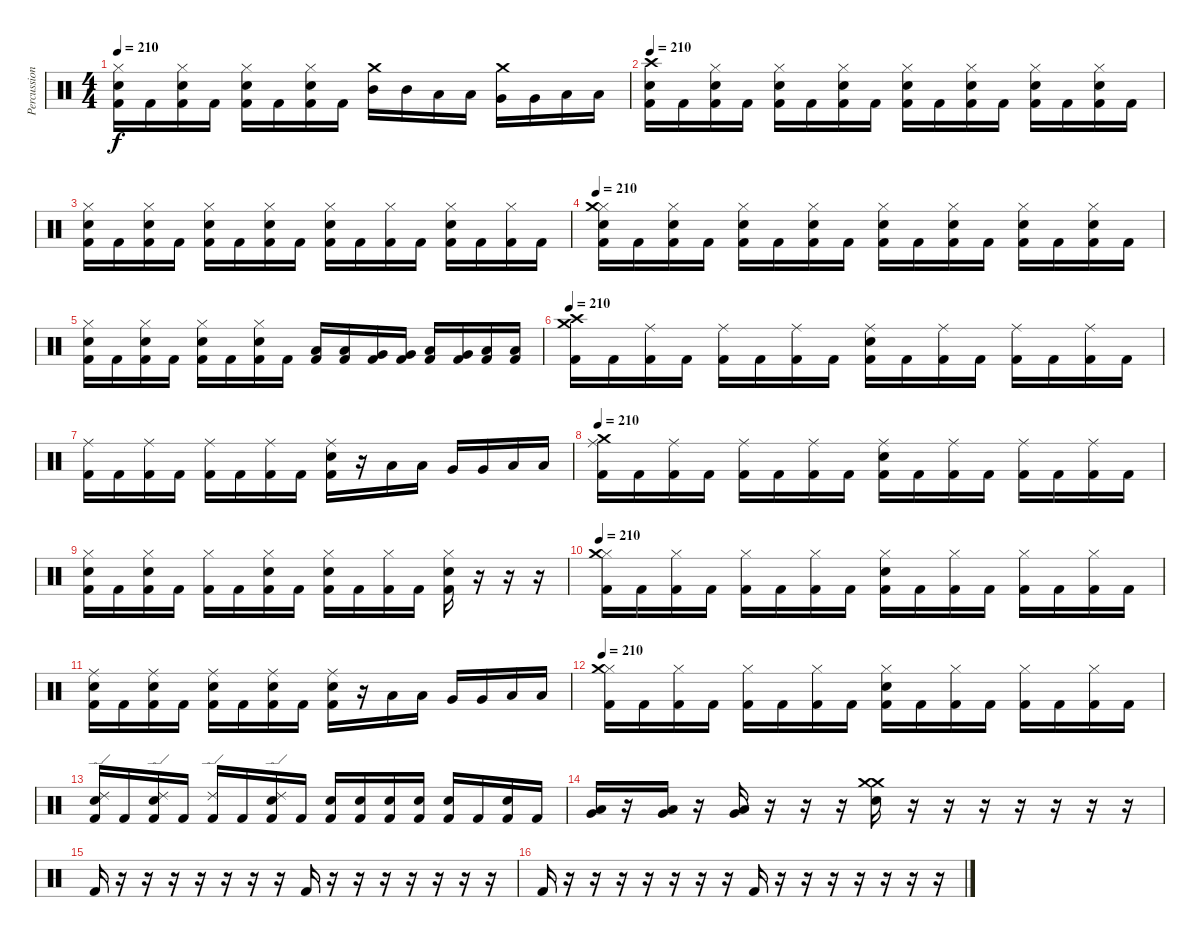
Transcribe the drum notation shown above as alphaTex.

\track ("Percussion" "Percussion") {instrument percussion}
\staff {score}
\articulation defaults
\ts (4 4)
\tempo 210
\clef neutral
\ks c
("Hi-Hat (closed)" "Snare (hit) 2" "Kick (hit) 2").16{dy f} "Kick (hit) 2".16 ("Hi-Hat (closed)" "Snare (hit) 2" "Kick (hit) 2").16 "Kick (hit) 2".16 ("Hi-Hat (closed)" "Snare (hit) 2" "Kick (hit) 2").16 "Kick (hit) 2".16 ("Hi-Hat (closed)" "Snare (hit) 2" "Kick (hit) 2").16 "Kick (hit) 2".16 ("Crash medium (hit)" "Mid Tom (hit)").16 "Mid Tom (hit)".16 "Low Tom (hit)".16 "Low Tom (hit)".16 ("Crash medium (hit)" "Very Low Tom (hit)").16 "Very Low Tom (hit)".16 "Low Floor Tom (hit)".16 "Low Floor Tom (hit)".16 |
\tempo 210
("Crash high (hit)" "Snare (hit) 2" "Kick (hit) 2").16 "Kick (hit) 2".16 ("Hi-Hat (closed)" "Snare (hit) 2" "Kick (hit) 2").16 "Kick (hit) 2".16 ("Hi-Hat (closed)" "Snare (hit) 2" "Kick (hit) 2").16 "Kick (hit) 2".16 ("Hi-Hat (closed)" "Snare (hit) 2" "Kick (hit) 2").16 "Kick (hit) 2".16 ("Hi-Hat (closed)" "Snare (hit) 2" "Kick (hit) 2").16 "Kick (hit) 2".16 ("Hi-Hat (closed)" "Snare (hit) 2" "Kick (hit) 2").16 "Kick (hit) 2".16 ("Hi-Hat (closed)" "Snare (hit) 2" "Kick (hit) 2").16 "Kick (hit) 2".16 ("Hi-Hat (closed)" "Snare (hit) 2" "Kick (hit) 2").16 "Kick (hit) 2".16 |
("Hi-Hat (closed)" "Snare (hit) 2" "Kick (hit) 2").16 "Kick (hit) 2".16 ("Hi-Hat (closed)" "Snare (hit) 2" "Kick (hit) 2").16 "Kick (hit) 2".16 ("Hi-Hat (closed)" "Snare (hit) 2" "Kick (hit) 2").16 "Kick (hit) 2".16 ("Hi-Hat (closed)" "Snare (hit) 2" "Kick (hit) 2").16 "Kick (hit) 2".16 ("Hi-Hat (closed)" "Snare (hit) 2" "Kick (hit) 2").16 "Kick (hit) 2".16 ("Hi-Hat (closed)" "Kick (hit) 2").16 "Kick (hit) 2".16 ("Hi-Hat (closed)" "Snare (hit) 2" "Kick (hit) 2").16 "Kick (hit) 2".16 ("Hi-Hat (closed)" "Kick (hit) 2").16 "Kick (hit) 2".16 |
\tempo 210
("Hi-Hat (closed)" "Crash medium (hit)" "Snare (hit) 2" "Kick (hit) 2").16 "Kick (hit) 2".16 ("Hi-Hat (closed)" "Snare (hit) 2" "Kick (hit) 2").16 "Kick (hit) 2".16 ("Hi-Hat (closed)" "Snare (hit) 2" "Kick (hit) 2").16 "Kick (hit) 2".16 ("Hi-Hat (closed)" "Snare (hit) 2" "Kick (hit) 2").16 "Kick (hit) 2".16 ("Hi-Hat (closed)" "Snare (hit) 2" "Kick (hit) 2").16 "Kick (hit) 2".16 ("Hi-Hat (closed)" "Snare (hit) 2" "Kick (hit) 2").16 "Kick (hit) 2".16 ("Hi-Hat (closed)" "Snare (hit) 2" "Kick (hit) 2").16 "Kick (hit) 2".16 ("Hi-Hat (closed)" "Snare (hit) 2" "Kick (hit) 2").16 "Kick (hit) 2".16 |
("Hi-Hat (closed)" "Snare (hit) 2" "Kick (hit) 2").16 "Kick (hit) 2".16 ("Hi-Hat (closed)" "Snare (hit) 2" "Kick (hit) 2").16 "Kick (hit) 2".16 ("Hi-Hat (closed)" "Snare (hit) 2" "Kick (hit) 2").16 "Kick (hit) 2".16 ("Hi-Hat (closed)" "Snare (hit) 2" "Kick (hit) 2").16 "Kick (hit) 2".16 ("Low Tom (hit)" "Kick (hit) 2").16 ("Low Tom (hit)" "Kick (hit) 2").16 ("Very Low Tom (hit)" "Kick (hit) 2").16 ("Very Low Tom (hit)" "Kick (hit) 2").16 ("Low Tom (hit)" "Kick (hit) 2").16 ("Very Low Tom (hit)" "Kick (hit) 2").16 ("Low Floor Tom (hit)" "Kick (hit) 2").16 ("Low Floor Tom (hit)" "Kick (hit) 2").16 |
\tempo 210
("Crash high (hit)" "Crash medium (hit)" "Kick (hit) 2").16 "Kick (hit) 2".16 ("Ride (middle)" "Kick (hit) 2").16 "Kick (hit) 2".16 ("Ride (middle)" "Kick (hit) 2").16 "Kick (hit) 2".16 ("Ride (middle)" "Kick (hit) 2").16 "Kick (hit) 2".16 ("Ride (middle)" "Snare (hit) 2" "Kick (hit) 2").16 "Kick (hit) 2".16 ("Ride (middle)" "Kick (hit) 2").16 "Kick (hit) 2".16 ("Ride (middle)" "Kick (hit) 2").16 "Kick (hit) 2".16 ("Ride (middle)" "Kick (hit) 2").16 "Kick (hit) 2".16 |
("Ride (middle)" "Kick (hit) 2").16 "Kick (hit) 2".16 ("Ride (middle)" "Kick (hit) 2").16 "Kick (hit) 2".16 ("Ride (middle)" "Kick (hit) 2").16 "Kick (hit) 2".16 ("Ride (middle)" "Kick (hit) 2").16 "Kick (hit) 2".16 ("Ride (middle)" "Snare (hit) 2" "Kick (hit) 2").16 r.16 "Low Tom (hit)".16 "Low Tom (hit)".16 "Very Low Tom (hit)".16 "Very Low Tom (hit)".16 "Low Floor Tom (hit)".16 "Low Floor Tom (hit)".16 |
\tempo 210
("Ride (middle)" "Crash medium (hit)" "Kick (hit) 2").16 "Kick (hit) 2".16 ("Ride (middle)" "Kick (hit) 2").16 "Kick (hit) 2".16 ("Ride (middle)" "Kick (hit) 2").16 "Kick (hit) 2".16 ("Ride (middle)" "Kick (hit) 2").16 "Kick (hit) 2".16 ("Ride (middle)" "Snare (hit) 2" "Kick (hit) 2").16 "Kick (hit) 2".16 ("Ride (middle)" "Kick (hit) 2").16 "Kick (hit) 2".16 ("Ride (middle)" "Kick (hit) 2").16 "Kick (hit) 2".16 ("Ride (middle)" "Kick (hit) 2").16 "Kick (hit) 2".16 |
("Hi-Hat (closed)" "Snare (hit) 2" "Kick (hit) 2").16 "Kick (hit) 2".16 ("Hi-Hat (closed)" "Snare (hit) 2" "Kick (hit) 2").16 "Kick (hit) 2".16 ("Hi-Hat (closed)" "Kick (hit) 2").16 "Kick (hit) 2".16 ("Hi-Hat (closed)" "Snare (hit) 2" "Kick (hit) 2").16 "Kick (hit) 2".16 ("Hi-Hat (closed)" "Snare (hit) 2" "Kick (hit) 2").16 "Kick (hit) 2".16 ("Hi-Hat (closed)" "Kick (hit) 2").16 "Kick (hit) 2".16 ("Hi-Hat (closed)" "Snare (hit) 2" "Kick (hit) 2").16 r.16 r.16 r.16 |
\tempo 210
("Hi-Hat (closed)" "Crash medium (hit)" "Kick (hit) 2").16 "Kick (hit) 2".16 ("Hi-Hat (closed)" "Kick (hit) 2").16 "Kick (hit) 2".16 ("Hi-Hat (closed)" "Kick (hit) 2").16 "Kick (hit) 2".16 ("Hi-Hat (closed)" "Kick (hit) 2").16 "Kick (hit) 2".16 ("Hi-Hat (closed)" "Snare (hit) 2" "Kick (hit) 2").16 "Kick (hit) 2".16 ("Hi-Hat (closed)" "Kick (hit) 2").16 "Kick (hit) 2".16 ("Hi-Hat (closed)" "Kick (hit) 2").16 "Kick (hit) 2".16 ("Hi-Hat (closed)" "Kick (hit) 2").16 "Kick (hit) 2".16 |
("Ride (middle)" "Snare (hit) 2" "Kick (hit) 2").16 "Kick (hit) 2".16 ("Ride (middle)" "Snare (hit) 2" "Kick (hit) 2").16 "Kick (hit) 2".16 ("Ride (middle)" "Snare (hit) 2" "Kick (hit) 2").16 "Kick (hit) 2".16 ("Ride (middle)" "Snare (hit) 2" "Kick (hit) 2").16 "Kick (hit) 2".16 ("Ride (middle)" "Snare (hit) 2" "Kick (hit) 2").16 r.16 "Low Tom (hit)".16 "Low Tom (hit)".16 "Very Low Tom (hit)".16 "Very Low Tom (hit)".16 "Low Floor Tom (hit)".16 "Low Floor Tom (hit)".16 |
\tempo 210
("Hi-Hat (closed)" "Crash medium (hit)" "Kick (hit) 2").16 "Kick (hit) 2".16 ("Hi-Hat (closed)" "Kick (hit) 2").16 "Kick (hit) 2".16 ("Hi-Hat (closed)" "Kick (hit) 2").16 "Kick (hit) 2".16 ("Hi-Hat (closed)" "Kick (hit) 2").16 "Kick (hit) 2".16 ("Hi-Hat (closed)" "Snare (hit) 2" "Kick (hit) 2").16 "Kick (hit) 2".16 ("Hi-Hat (closed)" "Kick (hit) 2").16 "Kick (hit) 2".16 ("Hi-Hat (closed)" "Kick (hit) 2").16 "Kick (hit) 2".16 ("Hi-Hat (closed)" "Kick (hit) 2").16 "Kick (hit) 2".16 |
("Ride (edge) 2" "Snare (hit) 2" "Kick (hit) 2").16 "Kick (hit) 2".16 ("Ride (edge) 2" "Snare (hit) 2" "Kick (hit) 2").16 "Kick (hit) 2".16 ("Ride (edge) 2" "Kick (hit) 2").16 "Kick (hit) 2".16 ("Ride (edge) 2" "Snare (hit) 2" "Kick (hit) 2").16 "Kick (hit) 2".16 ("Snare (hit) 2" "Kick (hit) 2").16 ("Snare (hit) 2" "Kick (hit) 2").16 ("Snare (hit) 2" "Kick (hit) 2").16 ("Snare (hit) 2" "Kick (hit) 2").16 ("Snare (hit) 2" "Kick (hit) 2").16 "Kick (hit) 2".16 ("Snare (hit) 2" "Kick (hit) 2").16 "Kick (hit) 2".16 |
("Low Floor Tom (hit)" "Very Low Tom (hit)").16 r.16 ("Low Floor Tom (hit)" "Very Low Tom (hit)").16 r.16 ("Low Floor Tom (hit)" "Very Low Tom (hit)").16 r.16 r.16 r.16 ("Crash medium (hit)" "Crash medium (hit)" "Snare (hit) 2").16 r.16 r.16 r.16 r.16 r.16 r.16 r.16 |
"Kick (hit) 2".16 r.16 r.16 r.16 r.16 r.16 r.16 r.16 "Kick (hit) 2".16 r.16 r.16 r.16 r.16 r.16 r.16 r.16 |
"Kick (hit) 2".16 r.16 r.16 r.16 r.16 r.16 r.16 r.16 "Kick (hit) 2".16 r.16 r.16 r.16 r.16 r.16 r.16 r.16
